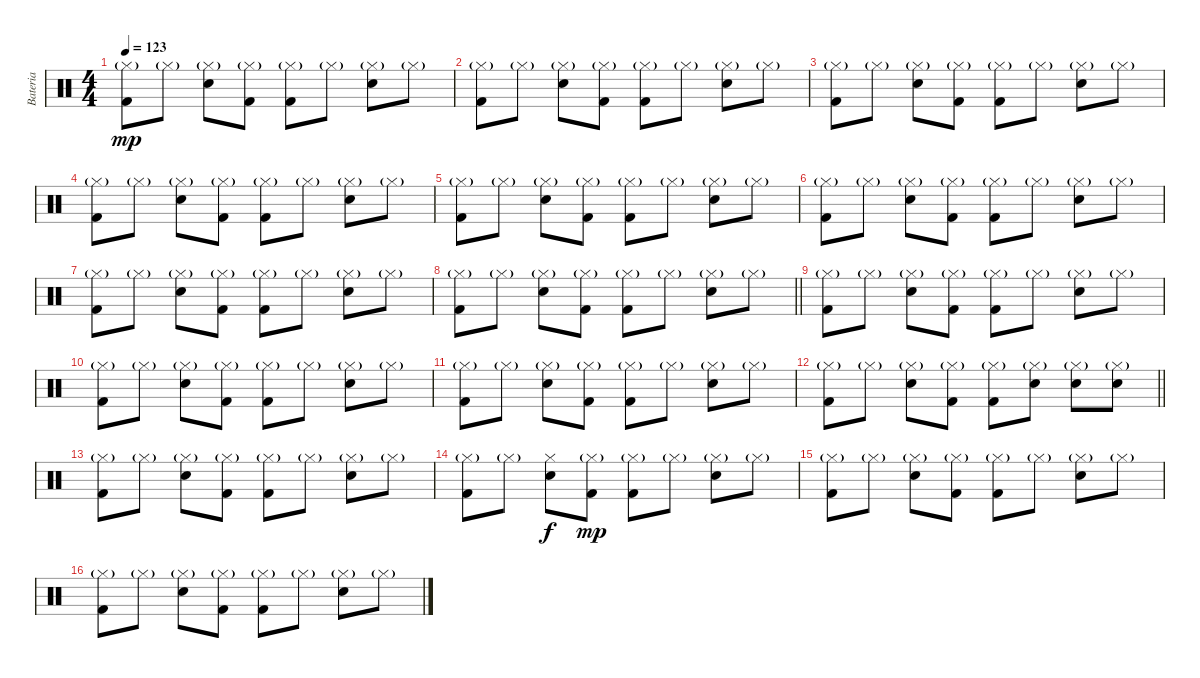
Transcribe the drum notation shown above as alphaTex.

\track ("Bateria" "Bateria") {instrument percussion}
\staff {score}
\articulation defaults
\ts (4 4)
\tempo 123
\clef neutral
\ks c
("Hi-Hat (closed)"{g} "Kick (hit) 2").8{dy mp} "Hi-Hat (closed)"{g}.8 ("Hi-Hat (closed)"{g} "Snare (hit) 2").8 ("Hi-Hat (closed)"{g} "Kick (hit) 2").8 ("Hi-Hat (closed)"{g} "Kick (hit) 2").8 "Hi-Hat (closed)"{g}.8 ("Hi-Hat (closed)"{g} "Snare (hit) 2").8 "Hi-Hat (closed)"{g}.8 |
("Hi-Hat (closed)"{g} "Kick (hit) 2").8 "Hi-Hat (closed)"{g}.8 ("Hi-Hat (closed)"{g} "Snare (hit) 2").8 ("Hi-Hat (closed)"{g} "Kick (hit) 2").8 ("Hi-Hat (closed)"{g} "Kick (hit) 2").8 "Hi-Hat (closed)"{g}.8 ("Hi-Hat (closed)"{g} "Snare (hit) 2").8 "Hi-Hat (closed)"{g}.8 |
("Hi-Hat (closed)"{g} "Kick (hit) 2").8 "Hi-Hat (closed)"{g}.8 ("Hi-Hat (closed)"{g} "Snare (hit) 2").8 ("Hi-Hat (closed)"{g} "Kick (hit) 2").8 ("Hi-Hat (closed)"{g} "Kick (hit) 2").8 "Hi-Hat (closed)"{g}.8 ("Hi-Hat (closed)"{g} "Snare (hit) 2").8 "Hi-Hat (closed)"{g}.8 |
("Hi-Hat (closed)"{g} "Kick (hit) 2").8 "Hi-Hat (closed)"{g}.8 ("Hi-Hat (closed)"{g} "Snare (hit) 2").8 ("Hi-Hat (closed)"{g} "Kick (hit) 2").8 ("Hi-Hat (closed)"{g} "Kick (hit) 2").8 "Hi-Hat (closed)"{g}.8 ("Hi-Hat (closed)"{g} "Snare (hit) 2").8 "Hi-Hat (closed)"{g}.8 |
("Hi-Hat (closed)"{g} "Kick (hit) 2").8 "Hi-Hat (closed)"{g}.8 ("Hi-Hat (closed)"{g} "Snare (hit) 2").8 ("Hi-Hat (closed)"{g} "Kick (hit) 2").8 ("Hi-Hat (closed)"{g} "Kick (hit) 2").8 "Hi-Hat (closed)"{g}.8 ("Hi-Hat (closed)"{g} "Snare (hit) 2").8 "Hi-Hat (closed)"{g}.8 |
("Hi-Hat (closed)"{g} "Kick (hit) 2").8 "Hi-Hat (closed)"{g}.8 ("Hi-Hat (closed)"{g} "Snare (hit) 2").8 ("Hi-Hat (closed)"{g} "Kick (hit) 2").8 ("Hi-Hat (closed)"{g} "Kick (hit) 2").8 "Hi-Hat (closed)"{g}.8 ("Hi-Hat (closed)"{g} "Snare (hit) 2").8 "Hi-Hat (closed)"{g}.8 |
("Hi-Hat (closed)"{g} "Kick (hit) 2").8 "Hi-Hat (closed)"{g}.8 ("Hi-Hat (closed)"{g} "Snare (hit) 2").8 ("Hi-Hat (closed)"{g} "Kick (hit) 2").8 ("Hi-Hat (closed)"{g} "Kick (hit) 2").8 "Hi-Hat (closed)"{g}.8 ("Hi-Hat (closed)"{g} "Snare (hit) 2").8 "Hi-Hat (closed)"{g}.8 |
\barLineRight lightlight
("Hi-Hat (closed)"{g} "Kick (hit) 2").8 "Hi-Hat (closed)"{g}.8 ("Hi-Hat (closed)"{g} "Snare (hit) 2").8 ("Hi-Hat (closed)"{g} "Kick (hit) 2").8 ("Hi-Hat (closed)"{g} "Kick (hit) 2").8 "Hi-Hat (closed)"{g}.8 ("Hi-Hat (closed)"{g} "Snare (hit) 2").8 "Hi-Hat (closed)"{g}.8 |
("Hi-Hat (closed)"{g} "Kick (hit) 2").8 "Hi-Hat (closed)"{g}.8 ("Hi-Hat (closed)"{g} "Snare (hit) 2").8 ("Hi-Hat (closed)"{g} "Kick (hit) 2").8 ("Hi-Hat (closed)"{g} "Kick (hit) 2").8 "Hi-Hat (closed)"{g}.8 ("Hi-Hat (closed)"{g} "Snare (hit) 2").8 "Hi-Hat (closed)"{g}.8 |
("Hi-Hat (closed)"{g} "Kick (hit) 2").8 "Hi-Hat (closed)"{g}.8 ("Hi-Hat (closed)"{g} "Snare (hit) 2").8 ("Hi-Hat (closed)"{g} "Kick (hit) 2").8 ("Hi-Hat (closed)"{g} "Kick (hit) 2").8 "Hi-Hat (closed)"{g}.8 ("Hi-Hat (closed)"{g} "Snare (hit) 2").8 "Hi-Hat (closed)"{g}.8 |
("Hi-Hat (closed)"{g} "Kick (hit) 2").8 "Hi-Hat (closed)"{g}.8 ("Hi-Hat (closed)"{g} "Snare (hit) 2").8 ("Hi-Hat (closed)"{g} "Kick (hit) 2").8 ("Hi-Hat (closed)"{g} "Kick (hit) 2").8 "Hi-Hat (closed)"{g}.8 ("Hi-Hat (closed)"{g} "Snare (hit) 2").8 "Hi-Hat (closed)"{g}.8 |
\barLineRight lightlight
("Hi-Hat (closed)"{g} "Kick (hit) 2").8 "Hi-Hat (closed)"{g}.8 ("Hi-Hat (closed)"{g} "Snare (hit) 2").8 ("Hi-Hat (closed)"{g} "Kick (hit) 2").8 ("Hi-Hat (closed)"{g} "Kick (hit) 2").8 ("Hi-Hat (closed)"{g} "Snare (hit) 2").8 ("Hi-Hat (closed)"{g} "Snare (hit) 2").8 ("Hi-Hat (closed)"{g} "Snare (hit) 2").8 |
("Hi-Hat (closed)"{g} "Kick (hit) 2").8 "Hi-Hat (closed)"{g}.8 ("Hi-Hat (closed)"{g} "Snare (hit) 2").8 ("Hi-Hat (closed)"{g} "Kick (hit) 2").8 ("Hi-Hat (closed)"{g} "Kick (hit) 2").8 "Hi-Hat (closed)"{g}.8 ("Hi-Hat (closed)"{g} "Snare (hit) 2").8 "Hi-Hat (closed)"{g}.8 |
("Hi-Hat (closed)"{g} "Kick (hit) 2").8 "Hi-Hat (closed)"{g}.8 ("Hi-Hat (closed)" "Snare (hit) 2").8{dy f} ("Hi-Hat (closed)"{g} "Kick (hit) 2").8{dy mp} ("Hi-Hat (closed)"{g} "Kick (hit) 2").8 "Hi-Hat (closed)"{g}.8 ("Hi-Hat (closed)"{g} "Snare (hit) 2").8 "Hi-Hat (closed)"{g}.8 |
("Hi-Hat (closed)"{g} "Kick (hit) 2").8 "Hi-Hat (closed)"{g}.8 ("Hi-Hat (closed)"{g} "Snare (hit) 2").8 ("Hi-Hat (closed)"{g} "Kick (hit) 2").8 ("Hi-Hat (closed)"{g} "Kick (hit) 2").8 "Hi-Hat (closed)"{g}.8 ("Hi-Hat (closed)"{g} "Snare (hit) 2").8 "Hi-Hat (closed)"{g}.8 |
("Hi-Hat (closed)"{g} "Kick (hit) 2").8 "Hi-Hat (closed)"{g}.8 ("Hi-Hat (closed)"{g} "Snare (hit) 2").8 ("Hi-Hat (closed)"{g} "Kick (hit) 2").8 ("Hi-Hat (closed)"{g} "Kick (hit) 2").8 "Hi-Hat (closed)"{g}.8 ("Hi-Hat (closed)"{g} "Snare (hit) 2").8 "Hi-Hat (closed)"{g}.8
